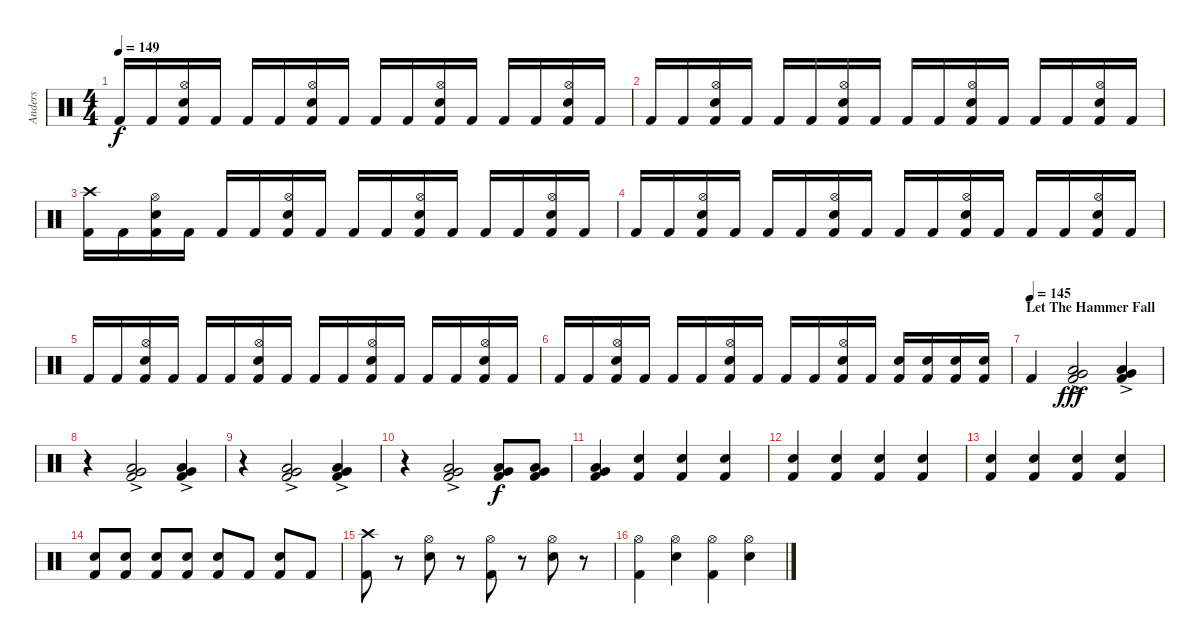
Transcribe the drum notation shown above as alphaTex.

\track ("Anders" "Anders") {instrument percussion}
\staff {score}
\articulation defaults
\ts (4 4)
\tempo 149
\clef neutral
\ks c "Kick (hit) 2".16{dy f} "Kick (hit) 2".16
("Hi-Hat (open)" "Electric Snare (hit)" "Kick (hit) 2").16 "Kick (hit) 2".16 "Kick (hit) 2".16 "Kick (hit) 2".16 ("Hi-Hat (open)" "Electric Snare (hit)" "Kick (hit) 2").16 "Kick (hit) 2".16 "Kick (hit) 2".16 "Kick (hit) 2".16 ("Hi-Hat (open)" "Electric Snare (hit)" "Kick (hit) 2").16 "Kick (hit) 2".16 "Kick (hit) 2".16 "Kick (hit) 2".16 ("Hi-Hat (open)" "Electric Snare (hit)" "Kick (hit) 2").16 "Kick (hit) 2".16 |
"Kick (hit) 2".16 "Kick (hit) 2".16 ("Hi-Hat (open)" "Electric Snare (hit)" "Kick (hit) 2").16 "Kick (hit) 2".16 "Kick (hit) 2".16 "Kick (hit) 2".16 ("Hi-Hat (open)" "Electric Snare (hit)" "Kick (hit) 2").16 "Kick (hit) 2".16 "Kick (hit) 2".16 "Kick (hit) 2".16 ("Hi-Hat (open)" "Electric Snare (hit)" "Kick (hit) 2").16 "Kick (hit) 2".16 "Kick (hit) 2".16 "Kick (hit) 2".16 ("Hi-Hat (open)" "Electric Snare (hit)" "Kick (hit) 2").16 "Kick (hit) 2".16 |
("Crash high (hit)" "Kick (hit) 2").16 "Kick (hit) 2".16 ("Hi-Hat (open)" "Electric Snare (hit)" "Kick (hit) 2").16 "Kick (hit) 2".16 "Kick (hit) 2".16 "Kick (hit) 2".16 ("Hi-Hat (open)" "Electric Snare (hit)" "Kick (hit) 2").16 "Kick (hit) 2".16 "Kick (hit) 2".16 "Kick (hit) 2".16 ("Hi-Hat (open)" "Electric Snare (hit)" "Kick (hit) 2").16 "Kick (hit) 2".16 "Kick (hit) 2".16 "Kick (hit) 2".16 ("Hi-Hat (open)" "Electric Snare (hit)" "Kick (hit) 2").16 "Kick (hit) 2".16 |
"Kick (hit) 2".16 "Kick (hit) 2".16 ("Hi-Hat (open)" "Electric Snare (hit)" "Kick (hit) 2").16 "Kick (hit) 2".16 "Kick (hit) 2".16 "Kick (hit) 2".16 ("Hi-Hat (open)" "Electric Snare (hit)" "Kick (hit) 2").16 "Kick (hit) 2".16 "Kick (hit) 2".16 "Kick (hit) 2".16 ("Hi-Hat (open)" "Electric Snare (hit)" "Kick (hit) 2").16 "Kick (hit) 2".16 "Kick (hit) 2".16 "Kick (hit) 2".16 ("Hi-Hat (open)" "Electric Snare (hit)" "Kick (hit) 2").16 "Kick (hit) 2".16 |
"Kick (hit) 2".16 "Kick (hit) 2".16 ("Hi-Hat (open)" "Electric Snare (hit)" "Kick (hit) 2").16 "Kick (hit) 2".16 "Kick (hit) 2".16 "Kick (hit) 2".16 ("Hi-Hat (open)" "Electric Snare (hit)" "Kick (hit) 2").16 "Kick (hit) 2".16 "Kick (hit) 2".16 "Kick (hit) 2".16 ("Hi-Hat (open)" "Electric Snare (hit)" "Kick (hit) 2").16 "Kick (hit) 2".16 "Kick (hit) 2".16 "Kick (hit) 2".16 ("Hi-Hat (open)" "Electric Snare (hit)" "Kick (hit) 2").16 "Kick (hit) 2".16 |
"Kick (hit) 2".16 "Kick (hit) 2".16 ("Hi-Hat (open)" "Electric Snare (hit)" "Kick (hit) 2").16 "Kick (hit) 2".16 "Kick (hit) 2".16 "Kick (hit) 2".16 ("Hi-Hat (open)" "Electric Snare (hit)" "Kick (hit) 2").16 "Kick (hit) 2".16 "Kick (hit) 2".16 "Kick (hit) 2".16 ("Hi-Hat (open)" "Electric Snare (hit)" "Kick (hit) 2").16 "Kick (hit) 2".16 ("Electric Snare (hit)" "Kick (hit) 2").16 ("Electric Snare (hit)" "Kick (hit) 2").16 ("Electric Snare (hit)" "Kick (hit) 2").16 ("Electric Snare (hit)" "Kick (hit) 2").16 |
\section ("" "Let The Hammer Fall")
\tempo (145)
"Kick (hit) 2".4 ("Low Tom (hit)"{ac} "Very Low Tom (hit)"{ac} "Kick (hit) 2"{ac}).2{dy fff} ("Low Tom (hit)"{ac} "Very Low Tom (hit)"{ac} "Kick (hit) 2"{ac}).4 |
r.4 ("Low Tom (hit)"{ac} "Very Low Tom (hit)"{ac} "Kick (hit) 2"{ac}).2 ("Low Tom (hit)"{ac} "Very Low Tom (hit)"{ac} "Kick (hit) 2"{ac}).4 |
r.4 ("Low Tom (hit)"{ac} "Very Low Tom (hit)"{ac} "Kick (hit) 2"{ac}).2 ("Low Tom (hit)"{ac} "Very Low Tom (hit)"{ac} "Kick (hit) 2"{ac}).4 |
r.4 ("Low Tom (hit)"{ac} "Very Low Tom (hit)"{ac} "Kick (hit) 2"{ac}).2 ("Low Tom (hit)" "Very Low Tom (hit)" "Kick (hit) 2").8{dy f} ("Low Tom (hit)" "Very Low Tom (hit)" "Kick (hit) 2").8 |
("Low Tom (hit)" "Very Low Tom (hit)" "Kick (hit) 2").4 ("Electric Snare (hit)" "Kick (hit) 2").4 ("Electric Snare (hit)" "Kick (hit) 2").4 ("Electric Snare (hit)" "Kick (hit) 2").4 |
("Electric Snare (hit)" "Kick (hit) 2").4 ("Electric Snare (hit)" "Kick (hit) 2").4 ("Electric Snare (hit)" "Kick (hit) 2").4 ("Electric Snare (hit)" "Kick (hit) 2").4 |
("Electric Snare (hit)" "Kick (hit) 2").4 ("Electric Snare (hit)" "Kick (hit) 2").4 ("Electric Snare (hit)" "Kick (hit) 2").4 ("Electric Snare (hit)" "Kick (hit) 2").4 |
("Electric Snare (hit)" "Kick (hit) 2").8 ("Electric Snare (hit)" "Kick (hit) 2").8 ("Electric Snare (hit)" "Kick (hit) 2").8 ("Electric Snare (hit)" "Kick (hit) 2").8 ("Electric Snare (hit)" "Kick (hit) 2").8 "Kick (hit) 2".8 ("Electric Snare (hit)" "Kick (hit) 2").8 "Kick (hit) 2".8 |
("Crash high (hit)" "Kick (hit) 2").8 r.8 ("Hi-Hat (open)" "Electric Snare (hit)").8 r.8 ("Hi-Hat (open)" "Kick (hit) 2").8 r.8 ("Hi-Hat (open)" "Electric Snare (hit)").8 r.8 |
("Hi-Hat (open)" "Kick (hit) 2").4 ("Hi-Hat (open)" "Electric Snare (hit)").4 ("Hi-Hat (open)" "Kick (hit) 2").4 ("Hi-Hat (open)" "Electric Snare (hit)").4
